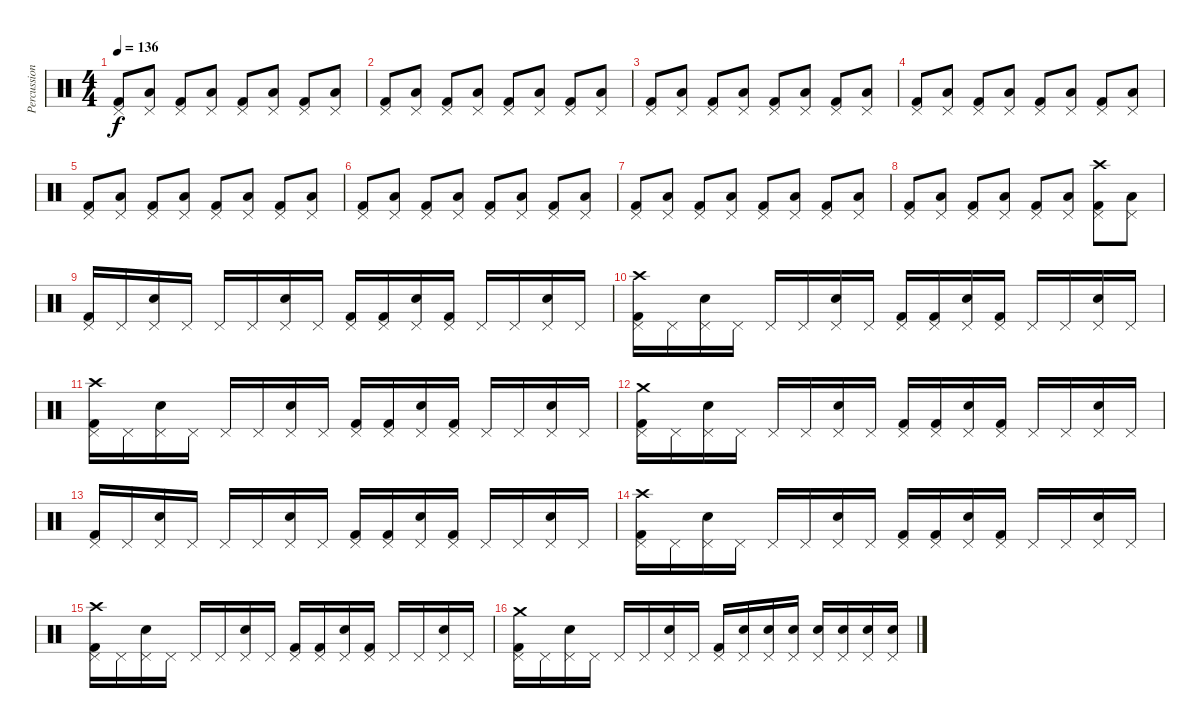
\track ("Percussion" "Percussion") {instrument percussion}
\staff {score}
\articulation defaults
\ts (4 4)
\tempo 136
\clef neutral
\ks c
("Kick (hit) 2" "Pedal Hi-Hat (hit)").8{dy f} ("Low Floor Tom (hit)" "Pedal Hi-Hat (hit)").8 ("Kick (hit) 2" "Pedal Hi-Hat (hit)").8 ("Low Floor Tom (hit)" "Pedal Hi-Hat (hit)").8 ("Kick (hit) 2" "Pedal Hi-Hat (hit)").8 ("Low Floor Tom (hit)" "Pedal Hi-Hat (hit)").8 ("Kick (hit) 2" "Pedal Hi-Hat (hit)").8 ("Low Floor Tom (hit)" "Pedal Hi-Hat (hit)").8 |
("Kick (hit) 2" "Pedal Hi-Hat (hit)").8 ("Low Floor Tom (hit)" "Pedal Hi-Hat (hit)").8 ("Kick (hit) 2" "Pedal Hi-Hat (hit)").8 ("Low Floor Tom (hit)" "Pedal Hi-Hat (hit)").8 ("Kick (hit) 2" "Pedal Hi-Hat (hit)").8 ("Low Floor Tom (hit)" "Pedal Hi-Hat (hit)").8 ("Kick (hit) 2" "Pedal Hi-Hat (hit)").8 ("Low Floor Tom (hit)" "Pedal Hi-Hat (hit)").8 |
("Kick (hit) 2" "Pedal Hi-Hat (hit)").8 ("Low Floor Tom (hit)" "Pedal Hi-Hat (hit)").8 ("Kick (hit) 2" "Pedal Hi-Hat (hit)").8 ("Low Floor Tom (hit)" "Pedal Hi-Hat (hit)").8 ("Kick (hit) 2" "Pedal Hi-Hat (hit)").8 ("Low Floor Tom (hit)" "Pedal Hi-Hat (hit)").8 ("Kick (hit) 2" "Pedal Hi-Hat (hit)").8 ("Low Floor Tom (hit)" "Pedal Hi-Hat (hit)").8 |
("Kick (hit) 2" "Pedal Hi-Hat (hit)").8 ("Low Floor Tom (hit)" "Pedal Hi-Hat (hit)").8 ("Kick (hit) 2" "Pedal Hi-Hat (hit)").8 ("Low Floor Tom (hit)" "Pedal Hi-Hat (hit)").8 ("Kick (hit) 2" "Pedal Hi-Hat (hit)").8 ("Low Floor Tom (hit)" "Pedal Hi-Hat (hit)").8 ("Kick (hit) 2" "Pedal Hi-Hat (hit)").8 ("Low Floor Tom (hit)" "Pedal Hi-Hat (hit)").8 |
("Kick (hit) 2" "Pedal Hi-Hat (hit)").8 ("Low Floor Tom (hit)" "Pedal Hi-Hat (hit)").8 ("Kick (hit) 2" "Pedal Hi-Hat (hit)").8 ("Low Floor Tom (hit)" "Pedal Hi-Hat (hit)").8 ("Kick (hit) 2" "Pedal Hi-Hat (hit)").8 ("Low Floor Tom (hit)" "Pedal Hi-Hat (hit)").8 ("Kick (hit) 2" "Pedal Hi-Hat (hit)").8 ("Low Floor Tom (hit)" "Pedal Hi-Hat (hit)").8 |
("Kick (hit) 2" "Pedal Hi-Hat (hit)").8 ("Low Floor Tom (hit)" "Pedal Hi-Hat (hit)").8 ("Kick (hit) 2" "Pedal Hi-Hat (hit)").8 ("Low Floor Tom (hit)" "Pedal Hi-Hat (hit)").8 ("Kick (hit) 2" "Pedal Hi-Hat (hit)").8 ("Low Floor Tom (hit)" "Pedal Hi-Hat (hit)").8 ("Kick (hit) 2" "Pedal Hi-Hat (hit)").8 ("Low Floor Tom (hit)" "Pedal Hi-Hat (hit)").8 |
("Kick (hit) 2" "Pedal Hi-Hat (hit)").8 ("Low Floor Tom (hit)" "Pedal Hi-Hat (hit)").8 ("Kick (hit) 2" "Pedal Hi-Hat (hit)").8 ("Low Floor Tom (hit)" "Pedal Hi-Hat (hit)").8 ("Kick (hit) 2" "Pedal Hi-Hat (hit)").8 ("Low Floor Tom (hit)" "Pedal Hi-Hat (hit)").8 ("Kick (hit) 2" "Pedal Hi-Hat (hit)").8 ("Low Floor Tom (hit)" "Pedal Hi-Hat (hit)").8 |
("Kick (hit) 2" "Pedal Hi-Hat (hit)").8 ("Low Floor Tom (hit)" "Pedal Hi-Hat (hit)").8 ("Kick (hit) 2" "Pedal Hi-Hat (hit)").8 ("Low Floor Tom (hit)" "Pedal Hi-Hat (hit)").8 ("Kick (hit) 2" "Pedal Hi-Hat (hit)").8 ("Low Floor Tom (hit)" "Pedal Hi-Hat (hit)").8 ("Kick (hit) 2" "Pedal Hi-Hat (hit)" "Crash high (hit)").8 ("Low Floor Tom (hit)" "Pedal Hi-Hat (hit)").8 |
("Pedal Hi-Hat (hit)" "Kick (hit) 2").16 "Pedal Hi-Hat (hit)".16 ("Pedal Hi-Hat (hit)" "Electric Snare (hit)").16 "Pedal Hi-Hat (hit)".16 "Pedal Hi-Hat (hit)".16 "Pedal Hi-Hat (hit)".16 ("Pedal Hi-Hat (hit)" "Electric Snare (hit)").16 "Pedal Hi-Hat (hit)".16 ("Pedal Hi-Hat (hit)" "Kick (hit) 2").16 ("Pedal Hi-Hat (hit)" "Kick (hit) 2").16 ("Pedal Hi-Hat (hit)" "Electric Snare (hit)").16 ("Pedal Hi-Hat (hit)" "Kick (hit) 2").16 "Pedal Hi-Hat (hit)".16 "Pedal Hi-Hat (hit)".16 ("Pedal Hi-Hat (hit)" "Electric Snare (hit)").16 "Pedal Hi-Hat (hit)".16 |
("Pedal Hi-Hat (hit)" "Kick (hit) 2" "Crash high (hit)").16 "Pedal Hi-Hat (hit)".16 ("Pedal Hi-Hat (hit)" "Electric Snare (hit)").16 "Pedal Hi-Hat (hit)".16 "Pedal Hi-Hat (hit)".16 "Pedal Hi-Hat (hit)".16 ("Pedal Hi-Hat (hit)" "Electric Snare (hit)").16 "Pedal Hi-Hat (hit)".16 ("Pedal Hi-Hat (hit)" "Kick (hit) 2").16 ("Pedal Hi-Hat (hit)" "Kick (hit) 2").16 ("Pedal Hi-Hat (hit)" "Electric Snare (hit)").16 ("Pedal Hi-Hat (hit)" "Kick (hit) 2").16 "Pedal Hi-Hat (hit)".16 "Pedal Hi-Hat (hit)".16 ("Pedal Hi-Hat (hit)" "Electric Snare (hit)").16 "Pedal Hi-Hat (hit)".16 |
("Pedal Hi-Hat (hit)" "Kick (hit) 2" "Crash high (hit)").16 "Pedal Hi-Hat (hit)".16 ("Pedal Hi-Hat (hit)" "Electric Snare (hit)").16 "Pedal Hi-Hat (hit)".16 "Pedal Hi-Hat (hit)".16 "Pedal Hi-Hat (hit)".16 ("Pedal Hi-Hat (hit)" "Electric Snare (hit)").16 "Pedal Hi-Hat (hit)".16 ("Pedal Hi-Hat (hit)" "Kick (hit) 2").16 ("Pedal Hi-Hat (hit)" "Kick (hit) 2").16 ("Pedal Hi-Hat (hit)" "Electric Snare (hit)").16 ("Pedal Hi-Hat (hit)" "Kick (hit) 2").16 "Pedal Hi-Hat (hit)".16 "Pedal Hi-Hat (hit)".16 ("Pedal Hi-Hat (hit)" "Electric Snare (hit)").16 "Pedal Hi-Hat (hit)".16 |
("Pedal Hi-Hat (hit)" "Kick (hit) 2" "Crash medium (hit)").16 "Pedal Hi-Hat (hit)".16 ("Pedal Hi-Hat (hit)" "Electric Snare (hit)").16 "Pedal Hi-Hat (hit)".16 "Pedal Hi-Hat (hit)".16 "Pedal Hi-Hat (hit)".16 ("Pedal Hi-Hat (hit)" "Electric Snare (hit)").16 "Pedal Hi-Hat (hit)".16 ("Pedal Hi-Hat (hit)" "Kick (hit) 2").16 ("Pedal Hi-Hat (hit)" "Kick (hit) 2").16 ("Pedal Hi-Hat (hit)" "Electric Snare (hit)").16 ("Pedal Hi-Hat (hit)" "Kick (hit) 2").16 "Pedal Hi-Hat (hit)".16 "Pedal Hi-Hat (hit)".16 ("Pedal Hi-Hat (hit)" "Electric Snare (hit)").16 "Pedal Hi-Hat (hit)".16 |
("Pedal Hi-Hat (hit)" "Kick (hit) 2").16 "Pedal Hi-Hat (hit)".16 ("Pedal Hi-Hat (hit)" "Electric Snare (hit)").16 "Pedal Hi-Hat (hit)".16 "Pedal Hi-Hat (hit)".16 "Pedal Hi-Hat (hit)".16 ("Pedal Hi-Hat (hit)" "Electric Snare (hit)").16 "Pedal Hi-Hat (hit)".16 ("Pedal Hi-Hat (hit)" "Kick (hit) 2").16 ("Pedal Hi-Hat (hit)" "Kick (hit) 2").16 ("Pedal Hi-Hat (hit)" "Electric Snare (hit)").16 ("Pedal Hi-Hat (hit)" "Kick (hit) 2").16 "Pedal Hi-Hat (hit)".16 "Pedal Hi-Hat (hit)".16 ("Pedal Hi-Hat (hit)" "Electric Snare (hit)").16 "Pedal Hi-Hat (hit)".16 |
("Pedal Hi-Hat (hit)" "Kick (hit) 2" "Crash high (hit)").16 "Pedal Hi-Hat (hit)".16 ("Pedal Hi-Hat (hit)" "Electric Snare (hit)").16 "Pedal Hi-Hat (hit)".16 "Pedal Hi-Hat (hit)".16 "Pedal Hi-Hat (hit)".16 ("Pedal Hi-Hat (hit)" "Electric Snare (hit)").16 "Pedal Hi-Hat (hit)".16 ("Pedal Hi-Hat (hit)" "Kick (hit) 2").16 ("Pedal Hi-Hat (hit)" "Kick (hit) 2").16 ("Pedal Hi-Hat (hit)" "Electric Snare (hit)").16 ("Pedal Hi-Hat (hit)" "Kick (hit) 2").16 "Pedal Hi-Hat (hit)".16 "Pedal Hi-Hat (hit)".16 ("Pedal Hi-Hat (hit)" "Electric Snare (hit)").16 "Pedal Hi-Hat (hit)".16 |
("Pedal Hi-Hat (hit)" "Kick (hit) 2" "Crash high (hit)").16 "Pedal Hi-Hat (hit)".16 ("Pedal Hi-Hat (hit)" "Electric Snare (hit)").16 "Pedal Hi-Hat (hit)".16 "Pedal Hi-Hat (hit)".16 "Pedal Hi-Hat (hit)".16 ("Pedal Hi-Hat (hit)" "Electric Snare (hit)").16 "Pedal Hi-Hat (hit)".16 ("Pedal Hi-Hat (hit)" "Kick (hit) 2").16 ("Pedal Hi-Hat (hit)" "Kick (hit) 2").16 ("Pedal Hi-Hat (hit)" "Electric Snare (hit)").16 ("Pedal Hi-Hat (hit)" "Kick (hit) 2").16 "Pedal Hi-Hat (hit)".16 "Pedal Hi-Hat (hit)".16 ("Pedal Hi-Hat (hit)" "Electric Snare (hit)").16 "Pedal Hi-Hat (hit)".16 |
("Pedal Hi-Hat (hit)" "Kick (hit) 2" "Crash medium (hit)").16 "Pedal Hi-Hat (hit)".16 ("Pedal Hi-Hat (hit)" "Electric Snare (hit)").16 "Pedal Hi-Hat (hit)".16 "Pedal Hi-Hat (hit)".16 "Pedal Hi-Hat (hit)".16 ("Pedal Hi-Hat (hit)" "Electric Snare (hit)").16 "Pedal Hi-Hat (hit)".16 ("Pedal Hi-Hat (hit)" "Kick (hit) 2").16 ("Pedal Hi-Hat (hit)" "Electric Snare (hit)").16 ("Pedal Hi-Hat (hit)" "Electric Snare (hit)").16 ("Pedal Hi-Hat (hit)" "Electric Snare (hit)").16 ("Pedal Hi-Hat (hit)" "Electric Snare (hit)").16 ("Pedal Hi-Hat (hit)" "Electric Snare (hit)").16 ("Pedal Hi-Hat (hit)" "Electric Snare (hit)").16 ("Pedal Hi-Hat (hit)" "Electric Snare (hit)").16
